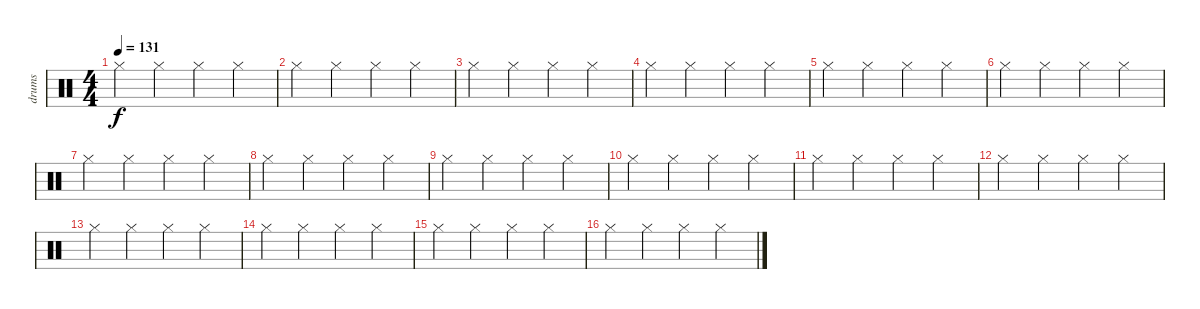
\track ("drums" "drums") {instrument percussion}
\staff {score}
\articulation defaults
\ts (4 4)
\tempo 131
\clef neutral
\ks c "Hi-Hat (closed)".4{dy f} "Hi-Hat (closed)".4 "Hi-Hat (closed)".4 "Hi-Hat (closed)".4
|
"Hi-Hat (closed)".4 "Hi-Hat (closed)".4 "Hi-Hat (closed)".4 "Hi-Hat (closed)".4 |
"Hi-Hat (closed)".4 "Hi-Hat (closed)".4 "Hi-Hat (closed)".4 "Hi-Hat (closed)".4 |
"Hi-Hat (closed)".4 "Hi-Hat (closed)".4 "Hi-Hat (closed)".4 "Hi-Hat (closed)".4 |
"Hi-Hat (closed)".4 "Hi-Hat (closed)".4 "Hi-Hat (closed)".4 "Hi-Hat (closed)".4 |
"Hi-Hat (closed)".4 "Hi-Hat (closed)".4 "Hi-Hat (closed)".4 "Hi-Hat (closed)".4 |
"Hi-Hat (closed)".4 "Hi-Hat (closed)".4 "Hi-Hat (closed)".4 "Hi-Hat (closed)".4 |
"Hi-Hat (closed)".4 "Hi-Hat (closed)".4 "Hi-Hat (closed)".4 "Hi-Hat (closed)".4 |
"Hi-Hat (closed)".4 "Hi-Hat (closed)".4 "Hi-Hat (closed)".4 "Hi-Hat (closed)".4 |
"Hi-Hat (closed)".4 "Hi-Hat (closed)".4 "Hi-Hat (closed)".4 "Hi-Hat (closed)".4 |
"Hi-Hat (closed)".4 "Hi-Hat (closed)".4 "Hi-Hat (closed)".4 "Hi-Hat (closed)".4 |
"Hi-Hat (closed)".4 "Hi-Hat (closed)".4 "Hi-Hat (closed)".4 "Hi-Hat (closed)".4 |
"Hi-Hat (closed)".4 "Hi-Hat (closed)".4 "Hi-Hat (closed)".4 "Hi-Hat (closed)".4 |
"Hi-Hat (closed)".4 "Hi-Hat (closed)".4 "Hi-Hat (closed)".4 "Hi-Hat (closed)".4 |
"Hi-Hat (closed)".4 "Hi-Hat (closed)".4 "Hi-Hat (closed)".4 "Hi-Hat (closed)".4 |
"Hi-Hat (closed)".4 "Hi-Hat (closed)".4 "Hi-Hat (closed)".4 "Hi-Hat (closed)".4
